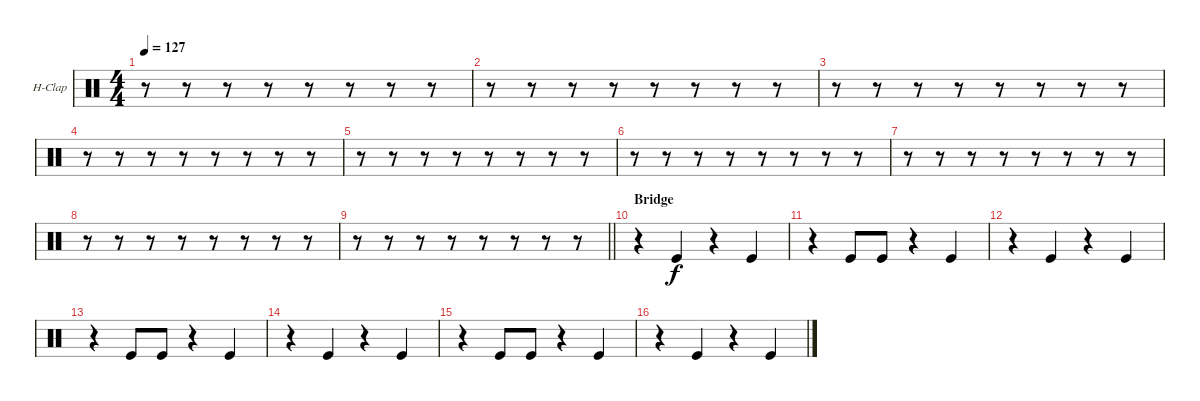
\bracketExtendMode groupsimilarinstruments
\firstSystemTrackNameOrientation horizontal
\otherSystemsTrackNameOrientation horizontal
\track ("Hand Clap" "H-Clap") {instrument percussion}
\staff {score}
\articulation defaults
\ts (4 4)
\tempo 127
\clef neutral
\ks c
r.8{dy f} r.8 r.8 r.8 r.8 r.8 r.8 r.8 |
r.8 r.8 r.8 r.8 r.8 r.8 r.8 r.8 |
r.8 r.8 r.8 r.8 r.8 r.8 r.8 r.8 |
r.8 r.8 r.8 r.8 r.8 r.8 r.8 r.8 |
r.8 r.8 r.8 r.8 r.8 r.8 r.8 r.8 |
r.8 r.8 r.8 r.8 r.8 r.8 r.8 r.8 |
r.8 r.8 r.8 r.8 r.8 r.8 r.8 r.8 |
r.8 r.8 r.8 r.8 r.8 r.8 r.8 r.8 |
\barLineRight lightlight
r.8 r.8 r.8 r.8 r.8 r.8 r.8 r.8 |
\section ("" "Bridge")
r.4 "Kick (hit)".4 r.4 "Kick (hit)".4 |
r.4 "Kick (hit)".8 "Kick (hit)".8 r.4 "Kick (hit)".4 |
r.4 "Kick (hit)".4 r.4 "Kick (hit)".4 |
r.4 "Kick (hit)".8 "Kick (hit)".8 r.4 "Kick (hit)".4 |
r.4 "Kick (hit)".4 r.4 "Kick (hit)".4 |
r.4 "Kick (hit)".8 "Kick (hit)".8 r.4 "Kick (hit)".4 |
r.4 "Kick (hit)".4 r.4 "Kick (hit)".4
